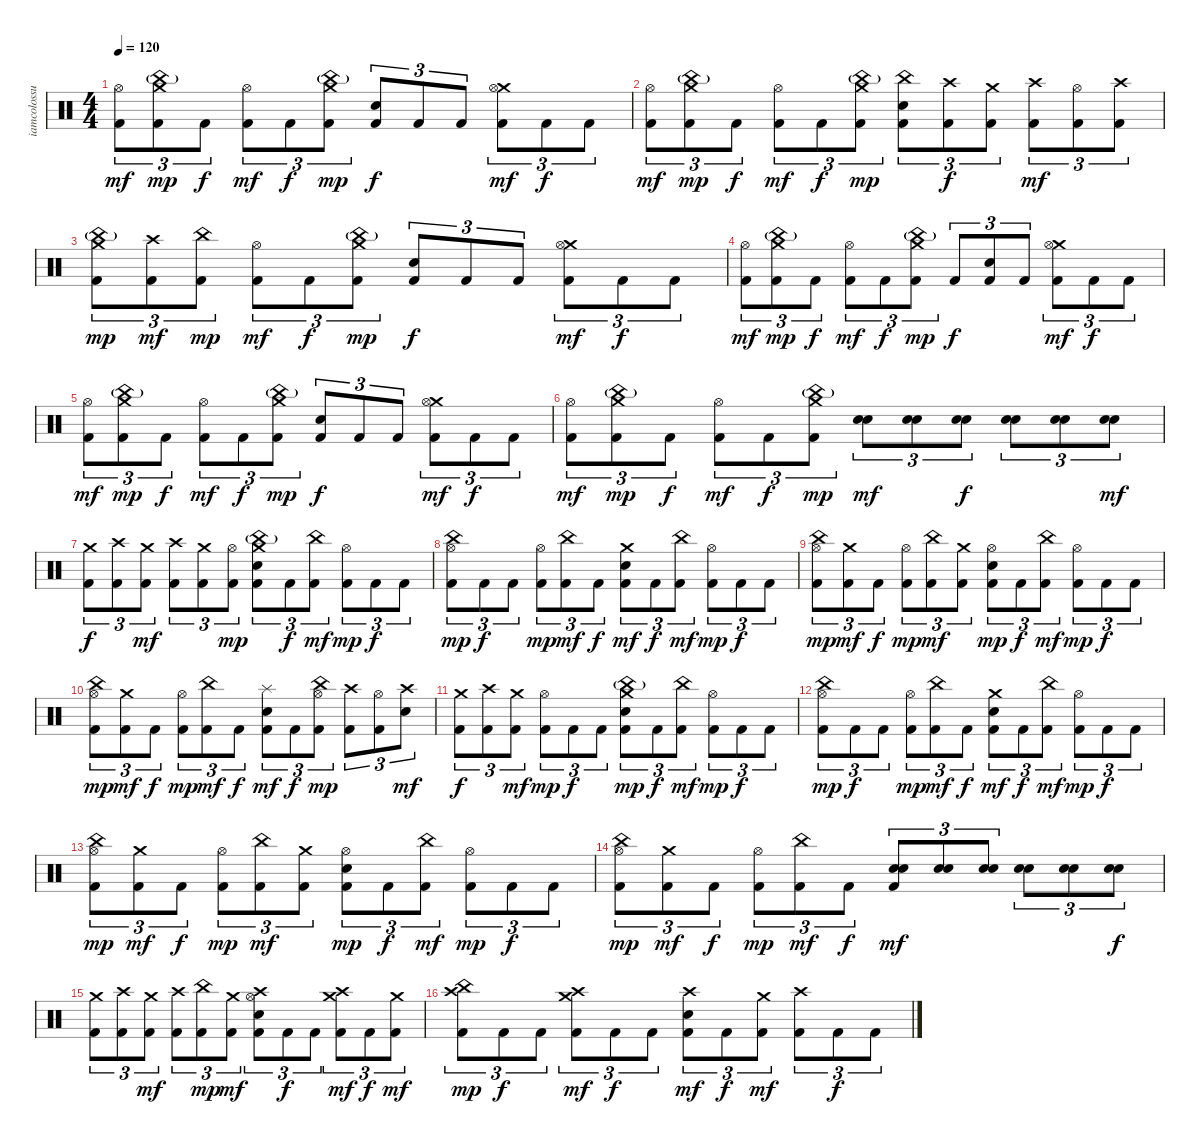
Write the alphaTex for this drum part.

\track ("iamcolossus(Thomas Haake)" "iamcolossu") {instrument percussion}
\staff {score}
\articulation defaults
\ts (4 4)
\tempo 120
\clef neutral
\ks c
("Hi-Hat (open)" "Kick (hit) 2").8{tu (3 2) dy mf} ("Crash medium (hit)" "China (hit)"{g} "Kick (hit) 2").8{tu (3 2) dy mp} "Kick (hit) 2".8{tu (3 2) dy f} ("Hi-Hat (open)" "Kick (hit) 2").8{tu (3 2) dy mf} "Kick (hit) 2".8{tu (3 2) dy f} ("Crash medium (hit)" "China (hit)"{g} "Kick (hit) 2").8{tu (3 2) dy mp} ("Electric Snare (hit)" "Kick (hit) 2").8{tu (3 2) dy f} "Kick (hit) 2".8{tu (3 2)} "Kick (hit) 2".8{tu (3 2)} ("Crash medium (hit)" "Hi-Hat (open)" "Kick (hit) 2").8{tu (3 2) dy mf} "Kick (hit) 2".8{tu (3 2) dy f} "Kick (hit) 2".8{tu (3 2)} |
("Hi-Hat (open)" "Kick (hit) 2").8{tu (3 2) dy mf} ("Crash medium (hit)" "China (hit)"{g} "Kick (hit) 2").8{tu (3 2) dy mp} "Kick (hit) 2".8{tu (3 2) dy f} ("Hi-Hat (open)" "Kick (hit) 2").8{tu (3 2) dy mf} "Kick (hit) 2".8{tu (3 2) dy f} ("Crash medium (hit)" "China (hit)"{g} "Kick (hit) 2").8{tu (3 2) dy mp} ("China (hit)" "Electric Snare (hit)" "Kick (hit) 2").8{tu (3 2)} ("Crash high (hit)" "Kick (hit) 2").8{tu (3 2) dy f} ("Crash medium (hit)" "Kick (hit) 2").8{tu (3 2)} ("Crash high (hit)" "Kick (hit) 2").8{tu (3 2) dy mf} ("Hi-Hat (open)" "Kick (hit) 2").8{tu (3 2)} ("Crash high (hit)" "Kick (hit) 2").8{tu (3 2)} |
("Crash medium (hit)" "China (hit)"{g} "Kick (hit) 2").8{tu (3 2) dy mp} ("Crash high (hit)" "Kick (hit) 2").8{tu (3 2) dy mf} ("China (hit)" "Kick (hit) 2").8{tu (3 2) dy mp} ("Hi-Hat (open)" "Kick (hit) 2").8{tu (3 2) dy mf} "Kick (hit) 2".8{tu (3 2) dy f} ("Crash medium (hit)" "China (hit)"{g} "Kick (hit) 2").8{tu (3 2) dy mp} ("Electric Snare (hit)" "Kick (hit) 2").8{tu (3 2) dy f} "Kick (hit) 2".8{tu (3 2)} "Kick (hit) 2".8{tu (3 2)} ("Crash medium (hit)" "Hi-Hat (open)" "Kick (hit) 2").8{tu (3 2) dy mf} "Kick (hit) 2".8{tu (3 2) dy f} "Kick (hit) 2".8{tu (3 2)} |
("Hi-Hat (open)" "Kick (hit) 2").8{tu (3 2) dy mf} ("Crash medium (hit)" "China (hit)"{g} "Kick (hit) 2").8{tu (3 2) dy mp} "Kick (hit) 2".8{tu (3 2) dy f} ("Hi-Hat (open)" "Kick (hit) 2").8{tu (3 2) dy mf} "Kick (hit) 2".8{tu (3 2) dy f} ("Crash medium (hit)" "China (hit)"{g} "Kick (hit) 2").8{tu (3 2) dy mp} "Kick (hit) 2".8{tu (3 2) dy f} ("Electric Snare (hit)" "Kick (hit) 2").8{tu (3 2)} "Kick (hit) 2".8{tu (3 2)} ("Crash medium (hit)" "Hi-Hat (open)" "Kick (hit) 2").8{tu (3 2) dy mf} "Kick (hit) 2".8{tu (3 2) dy f} "Kick (hit) 2".8{tu (3 2)} |
("Hi-Hat (open)" "Kick (hit) 2").8{tu (3 2) dy mf} ("Crash medium (hit)" "China (hit)"{g} "Kick (hit) 2").8{tu (3 2) dy mp} "Kick (hit) 2".8{tu (3 2) dy f} ("Hi-Hat (open)" "Kick (hit) 2").8{tu (3 2) dy mf} "Kick (hit) 2".8{tu (3 2) dy f} ("Crash medium (hit)" "China (hit)"{g} "Kick (hit) 2").8{tu (3 2) dy mp} ("Electric Snare (hit)" "Kick (hit) 2").8{tu (3 2) dy f} "Kick (hit) 2".8{tu (3 2)} "Kick (hit) 2".8{tu (3 2)} ("Crash medium (hit)" "Hi-Hat (open)" "Kick (hit) 2").8{tu (3 2) dy mf} "Kick (hit) 2".8{tu (3 2) dy f} "Kick (hit) 2".8{tu (3 2)} |
("Hi-Hat (open)" "Kick (hit) 2").8{tu (3 2) dy mf} ("Crash medium (hit)" "China (hit)"{g} "Kick (hit) 2").8{tu (3 2) dy mp} "Kick (hit) 2".8{tu (3 2) dy f} ("Hi-Hat (open)" "Kick (hit) 2").8{tu (3 2) dy mf} "Kick (hit) 2".8{tu (3 2) dy f} ("Crash medium (hit)" "China (hit)"{g} "Kick (hit) 2").8{tu (3 2) dy mp} ("Electric Snare (hit)" "Electric Snare (hit)").8{tu (3 2) bd 60 dy mf} ("Electric Snare (hit)" "Electric Snare (hit)").8{tu (3 2)} ("Electric Snare (hit)" "Electric Snare (hit)").8{tu (3 2) bd 30 dy f} ("Electric Snare (hit)" "Electric Snare (hit)").8{tu (3 2)} ("Electric Snare (hit)" "Electric Snare (hit)").8{tu (3 2) bd 30} ("Electric Snare (hit)" "Electric Snare (hit)").8{tu (3 2) bd 60 dy mf} |
("Crash medium (hit)" "Kick (hit) 2").8{tu (3 2) dy f} ("Crash high (hit)" "Kick (hit) 2").8{tu (3 2)} ("Crash medium (hit)" "Kick (hit) 2").8{tu (3 2) dy mf} ("Crash high (hit)" "Kick (hit) 2").8{tu (3 2)} ("Crash medium (hit)" "Kick (hit) 2").8{tu (3 2)} ("Hi-Hat (open)" "Kick (hit) 2").8{tu (3 2) dy mp} ("Crash medium (hit)" "China (hit)"{g} "Electric Snare (hit)" "Kick (hit) 2").8{tu (3 2)} "Kick (hit) 2".8{tu (3 2) dy f} ("China (hit)" "Kick (hit) 2").8{tu (3 2) dy mf} ("Hi-Hat (open)" "Kick (hit) 2").8{tu (3 2) dy mp} "Kick (hit) 2".8{tu (3 2) dy f} "Kick (hit) 2".8{tu (3 2)} |
("China (hit)" "Hi-Hat (open)" "Kick (hit) 2").8{tu (3 2) dy mp} "Kick (hit) 2".8{tu (3 2) dy f} "Kick (hit) 2".8{tu (3 2)} ("Hi-Hat (open)" "Kick (hit) 2").8{tu (3 2) dy mp} ("China (hit)" "Kick (hit) 2").8{tu (3 2) dy mf} "Kick (hit) 2".8{tu (3 2) dy f} ("Crash medium (hit)" "Electric Snare (hit)" "Kick (hit) 2").8{tu (3 2) dy mf} "Kick (hit) 2".8{tu (3 2) dy f} ("China (hit)" "Kick (hit) 2").8{tu (3 2) dy mf} ("Hi-Hat (open)" "Kick (hit) 2").8{tu (3 2) dy mp} "Kick (hit) 2".8{tu (3 2) dy f} "Kick (hit) 2".8{tu (3 2)} |
("China (hit)" "Hi-Hat (open)" "Kick (hit) 2").8{tu (3 2) dy mp} ("Crash medium (hit)" "Kick (hit) 2").8{tu (3 2) dy mf} "Kick (hit) 2".8{tu (3 2) dy f} ("Hi-Hat (open)" "Kick (hit) 2").8{tu (3 2) dy mp} ("China (hit)" "Kick (hit) 2").8{tu (3 2) dy mf} ("Crash medium (hit)" "Kick (hit) 2").8{tu (3 2)} ("Hi-Hat (open)" "Electric Snare (hit)" "Kick (hit) 2").8{tu (3 2) dy mp} "Kick (hit) 2".8{tu (3 2) dy f} ("China (hit)" "Kick (hit) 2").8{tu (3 2) dy mf} ("Hi-Hat (open)" "Kick (hit) 2").8{tu (3 2) dy mp} "Kick (hit) 2".8{tu (3 2) dy f} "Kick (hit) 2".8{tu (3 2)} |
("China (hit)" "Hi-Hat (open)" "Kick (hit) 2").8{tu (3 2) dy mp} ("Crash medium (hit)" "Kick (hit) 2").8{tu (3 2) dy mf} "Kick (hit) 2".8{tu (3 2) dy f} ("Hi-Hat (open)" "Kick (hit) 2").8{tu (3 2) dy mp} ("China (hit)" "Kick (hit) 2").8{tu (3 2) dy mf} "Kick (hit) 2".8{tu (3 2) dy f} ("Splash (hit)" "Electric Snare (hit)" "Kick (hit) 2").8{tu (3 2) dy mf} "Kick (hit) 2".8{tu (3 2) dy f} ("China (hit)" "Hi-Hat (open)" "Kick (hit) 2").8{tu (3 2) dy mp} ("Crash high (hit)" "Kick (hit) 2").8{tu (3 2)} ("Hi-Hat (open)" "Kick (hit) 2").8{tu (3 2)} ("Crash high (hit)" "Electric Snare (hit)").8{tu (3 2) dy mf} |
("Crash medium (hit)" "Kick (hit) 2").8{tu (3 2) dy f} ("Crash high (hit)" "Kick (hit) 2").8{tu (3 2)} ("Crash medium (hit)" "Kick (hit) 2").8{tu (3 2) dy mf} ("Hi-Hat (open)" "Kick (hit) 2").8{tu (3 2) dy mp} "Kick (hit) 2".8{tu (3 2) dy f} "Kick (hit) 2".8{tu (3 2)} ("Crash medium (hit)" "China (hit)"{g} "Electric Snare (hit)" "Kick (hit) 2").8{tu (3 2) dy mp} "Kick (hit) 2".8{tu (3 2) dy f} ("China (hit)" "Kick (hit) 2").8{tu (3 2) dy mf} ("Hi-Hat (open)" "Kick (hit) 2").8{tu (3 2) dy mp} "Kick (hit) 2".8{tu (3 2) dy f} "Kick (hit) 2".8{tu (3 2)} |
("China (hit)" "Hi-Hat (open)" "Kick (hit) 2").8{tu (3 2) dy mp} "Kick (hit) 2".8{tu (3 2) dy f} "Kick (hit) 2".8{tu (3 2)} ("Hi-Hat (open)" "Kick (hit) 2").8{tu (3 2) dy mp} ("China (hit)" "Kick (hit) 2").8{tu (3 2) dy mf} "Kick (hit) 2".8{tu (3 2) dy f} ("Crash medium (hit)" "Electric Snare (hit)" "Kick (hit) 2").8{tu (3 2) dy mf} "Kick (hit) 2".8{tu (3 2) dy f} ("China (hit)" "Kick (hit) 2").8{tu (3 2) dy mf} ("Hi-Hat (open)" "Kick (hit) 2").8{tu (3 2) dy mp} "Kick (hit) 2".8{tu (3 2) dy f} "Kick (hit) 2".8{tu (3 2)} |
("China (hit)" "Hi-Hat (open)" "Kick (hit) 2").8{tu (3 2) dy mp} ("Crash medium (hit)" "Kick (hit) 2").8{tu (3 2) dy mf} "Kick (hit) 2".8{tu (3 2) dy f} ("Hi-Hat (open)" "Kick (hit) 2").8{tu (3 2) dy mp} ("China (hit)" "Kick (hit) 2").8{tu (3 2) dy mf} ("Crash medium (hit)" "Kick (hit) 2").8{tu (3 2)} ("Hi-Hat (open)" "Electric Snare (hit)" "Kick (hit) 2").8{tu (3 2) dy mp} "Kick (hit) 2".8{tu (3 2) dy f} ("China (hit)" "Kick (hit) 2").8{tu (3 2) dy mf} ("Hi-Hat (open)" "Kick (hit) 2").8{tu (3 2) dy mp} "Kick (hit) 2".8{tu (3 2) dy f} "Kick (hit) 2".8{tu (3 2)} |
("China (hit)" "Hi-Hat (open)" "Kick (hit) 2").8{tu (3 2) dy mp} ("Crash medium (hit)" "Kick (hit) 2").8{tu (3 2) dy mf} "Kick (hit) 2".8{tu (3 2) dy f} ("Hi-Hat (open)" "Kick (hit) 2").8{tu (3 2) dy mp} ("China (hit)" "Kick (hit) 2").8{tu (3 2) dy mf} "Kick (hit) 2".8{tu (3 2) dy f} ("Electric Snare (hit)" "Electric Snare (hit)" "Kick (hit) 2").8{tu (3 2) bd 60 dy mf} ("Electric Snare (hit)" "Electric Snare (hit)").8{tu (3 2)} ("Electric Snare (hit)" "Electric Snare (hit)").8{tu (3 2)} ("Electric Snare (hit)" "Electric Snare (hit)").8{tu (3 2)} ("Electric Snare (hit)" "Electric Snare (hit)").8{tu (3 2)} ("Electric Snare (hit)" "Electric Snare (hit)").8{tu (3 2) dy f} |
("Crash medium (hit)" "Kick (hit) 2").8{tu (3 2)} ("Crash high (hit)" "Kick (hit) 2").8{tu (3 2)} ("Crash medium (hit)" "Kick (hit) 2").8{tu (3 2) dy mf} ("Crash high (hit)" "Kick (hit) 2").8{tu (3 2)} ("China (hit)" "Kick (hit) 2").8{tu (3 2) dy mp} ("Crash medium (hit)" "Kick (hit) 2").8{tu (3 2) dy mf} ("Hi-Hat (open)" "Crash high (hit)" "Electric Snare (hit)" "Kick (hit) 2").8{tu (3 2)} "Kick (hit) 2".8{tu (3 2) dy f} "Kick (hit) 2".8{tu (3 2)} ("Crash medium (hit)" "Crash high (hit)" "Kick (hit) 2").8{tu (3 2) dy mf} "Kick (hit) 2".8{tu (3 2) dy f} ("Crash medium (hit)" "Kick (hit) 2").8{tu (3 2) dy mf} |
("China (hit)" "Crash high (hit)" "Kick (hit) 2").8{tu (3 2) dy mp} "Kick (hit) 2".8{tu (3 2) dy f} "Kick (hit) 2".8{tu (3 2)} ("Crash medium (hit)" "Crash high (hit)" "Kick (hit) 2").8{tu (3 2) dy mf} "Kick (hit) 2".8{tu (3 2) dy f} "Kick (hit) 2".8{tu (3 2)} ("Crash high (hit)" "Electric Snare (hit)" "Kick (hit) 2").8{tu (3 2) dy mf} "Kick (hit) 2".8{tu (3 2) dy f} ("Crash medium (hit)" "Kick (hit) 2").8{tu (3 2) dy mf} ("Crash high (hit)" "Kick (hit) 2").8{tu (3 2)} "Kick (hit) 2".8{tu (3 2) dy f} "Kick (hit) 2".8{tu (3 2)}
